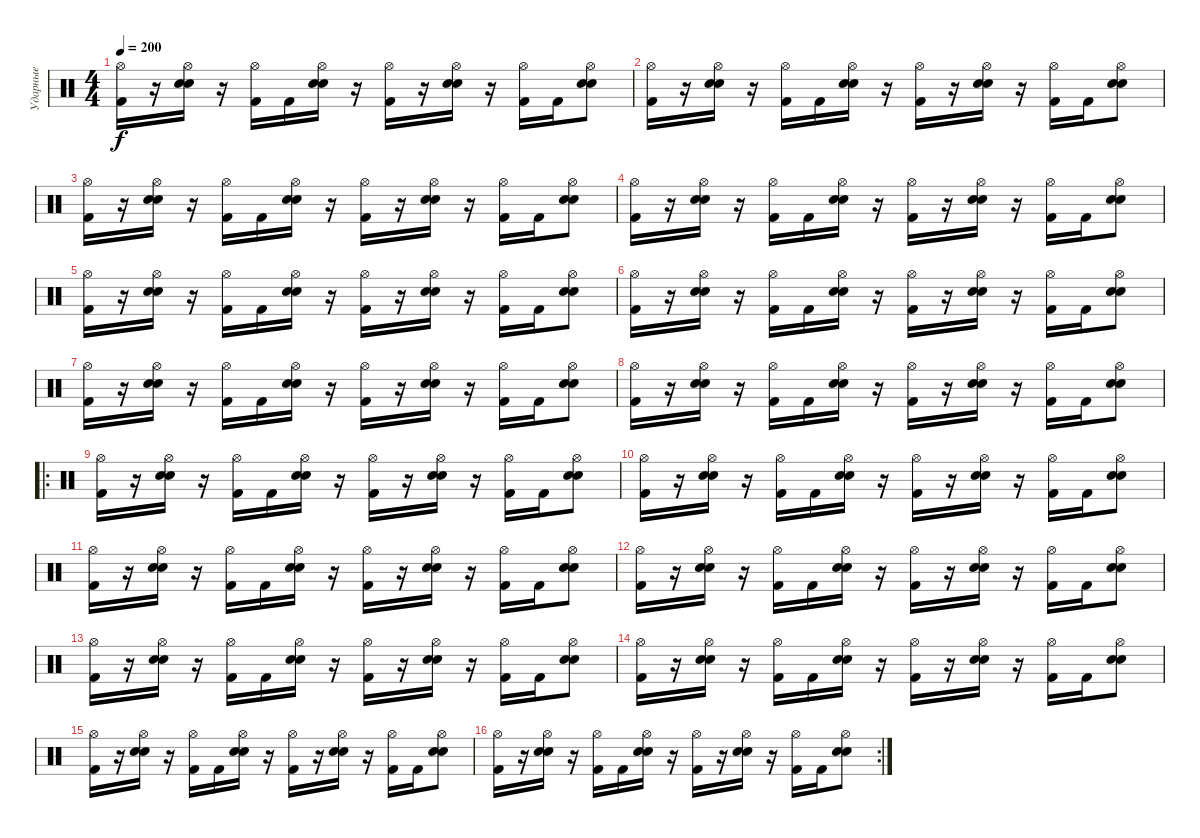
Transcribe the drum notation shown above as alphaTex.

\track ("Ударные" "Ударные") {instrument percussion}
\staff {score}
\articulation defaults
\ts (4 4)
\tempo 200
\clef neutral
\ks c
("Hi-Hat (open)" "Kick (hit) 2").16{dy f} r.16 ("Hi-Hat (open)" "Electric Snare (hit)" "Snare (hit) 2").16 r.16 ("Hi-Hat (open)" "Kick (hit) 2").16 "Kick (hit) 2".16 ("Hi-Hat (open)" "Electric Snare (hit)" "Snare (hit) 2").16 r.16 ("Hi-Hat (open)" "Kick (hit) 2").16 r.16 ("Hi-Hat (open)" "Electric Snare (hit)" "Snare (hit) 2").16 r.16 ("Hi-Hat (open)" "Kick (hit) 2").16 "Kick (hit) 2".16 ("Hi-Hat (open)" "Electric Snare (hit)" "Snare (hit) 2").8 |
("Hi-Hat (open)" "Kick (hit) 2").16 r.16 ("Hi-Hat (open)" "Electric Snare (hit)" "Snare (hit) 2").16 r.16 ("Hi-Hat (open)" "Kick (hit) 2").16 "Kick (hit) 2".16 ("Hi-Hat (open)" "Electric Snare (hit)" "Snare (hit) 2").16 r.16 ("Hi-Hat (open)" "Kick (hit) 2").16 r.16 ("Hi-Hat (open)" "Electric Snare (hit)" "Snare (hit) 2").16 r.16 ("Hi-Hat (open)" "Kick (hit) 2").16 "Kick (hit) 2".16 ("Hi-Hat (open)" "Electric Snare (hit)" "Snare (hit) 2").8 |
("Hi-Hat (open)" "Kick (hit) 2").16 r.16 ("Hi-Hat (open)" "Electric Snare (hit)" "Snare (hit) 2").16 r.16 ("Hi-Hat (open)" "Kick (hit) 2").16 "Kick (hit) 2".16 ("Hi-Hat (open)" "Electric Snare (hit)" "Snare (hit) 2").16 r.16 ("Hi-Hat (open)" "Kick (hit) 2").16 r.16 ("Hi-Hat (open)" "Electric Snare (hit)" "Snare (hit) 2").16 r.16 ("Hi-Hat (open)" "Kick (hit) 2").16 "Kick (hit) 2".16 ("Hi-Hat (open)" "Electric Snare (hit)" "Snare (hit) 2").8 |
("Hi-Hat (open)" "Kick (hit) 2").16 r.16 ("Hi-Hat (open)" "Electric Snare (hit)" "Snare (hit) 2").16 r.16 ("Hi-Hat (open)" "Kick (hit) 2").16 "Kick (hit) 2".16 ("Hi-Hat (open)" "Electric Snare (hit)" "Snare (hit) 2").16 r.16 ("Hi-Hat (open)" "Kick (hit) 2").16 r.16 ("Hi-Hat (open)" "Electric Snare (hit)" "Snare (hit) 2").16 r.16 ("Hi-Hat (open)" "Kick (hit) 2").16 "Kick (hit) 2".16 ("Hi-Hat (open)" "Electric Snare (hit)" "Snare (hit) 2").8 |
("Hi-Hat (open)" "Kick (hit) 2").16 r.16 ("Hi-Hat (open)" "Electric Snare (hit)" "Snare (hit) 2").16 r.16 ("Hi-Hat (open)" "Kick (hit) 2").16 "Kick (hit) 2".16 ("Hi-Hat (open)" "Electric Snare (hit)" "Snare (hit) 2").16 r.16 ("Hi-Hat (open)" "Kick (hit) 2").16 r.16 ("Hi-Hat (open)" "Electric Snare (hit)" "Snare (hit) 2").16 r.16 ("Hi-Hat (open)" "Kick (hit) 2").16 "Kick (hit) 2".16 ("Hi-Hat (open)" "Electric Snare (hit)" "Snare (hit) 2").8 |
("Hi-Hat (open)" "Kick (hit) 2").16 r.16 ("Hi-Hat (open)" "Electric Snare (hit)" "Snare (hit) 2").16 r.16 ("Hi-Hat (open)" "Kick (hit) 2").16 "Kick (hit) 2".16 ("Hi-Hat (open)" "Electric Snare (hit)" "Snare (hit) 2").16 r.16 ("Hi-Hat (open)" "Kick (hit) 2").16 r.16 ("Hi-Hat (open)" "Electric Snare (hit)" "Snare (hit) 2").16 r.16 ("Hi-Hat (open)" "Kick (hit) 2").16 "Kick (hit) 2".16 ("Hi-Hat (open)" "Electric Snare (hit)" "Snare (hit) 2").8 |
("Hi-Hat (open)" "Kick (hit) 2").16 r.16 ("Hi-Hat (open)" "Electric Snare (hit)" "Snare (hit) 2").16 r.16 ("Hi-Hat (open)" "Kick (hit) 2").16 "Kick (hit) 2".16 ("Hi-Hat (open)" "Electric Snare (hit)" "Snare (hit) 2").16 r.16 ("Hi-Hat (open)" "Kick (hit) 2").16 r.16 ("Hi-Hat (open)" "Electric Snare (hit)" "Snare (hit) 2").16 r.16 ("Hi-Hat (open)" "Kick (hit) 2").16 "Kick (hit) 2".16 ("Hi-Hat (open)" "Electric Snare (hit)" "Snare (hit) 2").8 |
("Hi-Hat (open)" "Kick (hit) 2").16 r.16 ("Hi-Hat (open)" "Electric Snare (hit)" "Snare (hit) 2").16 r.16 ("Hi-Hat (open)" "Kick (hit) 2").16 "Kick (hit) 2".16 ("Hi-Hat (open)" "Electric Snare (hit)" "Snare (hit) 2").16 r.16 ("Hi-Hat (open)" "Kick (hit) 2").16 r.16 ("Hi-Hat (open)" "Electric Snare (hit)" "Snare (hit) 2").16 r.16 ("Hi-Hat (open)" "Kick (hit) 2").16 "Kick (hit) 2".16 ("Hi-Hat (open)" "Electric Snare (hit)" "Snare (hit) 2").8 |
\ro
("Hi-Hat (open)" "Kick (hit) 2").16 r.16 ("Hi-Hat (open)" "Electric Snare (hit)" "Snare (hit) 2").16 r.16 ("Hi-Hat (open)" "Kick (hit) 2").16 "Kick (hit) 2".16 ("Hi-Hat (open)" "Electric Snare (hit)" "Snare (hit) 2").16 r.16 ("Hi-Hat (open)" "Kick (hit) 2").16 r.16 ("Hi-Hat (open)" "Electric Snare (hit)" "Snare (hit) 2").16 r.16 ("Hi-Hat (open)" "Kick (hit) 2").16 "Kick (hit) 2".16 ("Hi-Hat (open)" "Electric Snare (hit)" "Snare (hit) 2").8 |
("Hi-Hat (open)" "Kick (hit) 2").16 r.16 ("Hi-Hat (open)" "Electric Snare (hit)" "Snare (hit) 2").16 r.16 ("Hi-Hat (open)" "Kick (hit) 2").16 "Kick (hit) 2".16 ("Hi-Hat (open)" "Electric Snare (hit)" "Snare (hit) 2").16 r.16 ("Hi-Hat (open)" "Kick (hit) 2").16 r.16 ("Hi-Hat (open)" "Electric Snare (hit)" "Snare (hit) 2").16 r.16 ("Hi-Hat (open)" "Kick (hit) 2").16 "Kick (hit) 2".16 ("Hi-Hat (open)" "Electric Snare (hit)" "Snare (hit) 2").8 |
("Hi-Hat (open)" "Kick (hit) 2").16 r.16 ("Hi-Hat (open)" "Electric Snare (hit)" "Snare (hit) 2").16 r.16 ("Hi-Hat (open)" "Kick (hit) 2").16 "Kick (hit) 2".16 ("Hi-Hat (open)" "Electric Snare (hit)" "Snare (hit) 2").16 r.16 ("Hi-Hat (open)" "Kick (hit) 2").16 r.16 ("Hi-Hat (open)" "Electric Snare (hit)" "Snare (hit) 2").16 r.16 ("Hi-Hat (open)" "Kick (hit) 2").16 "Kick (hit) 2".16 ("Hi-Hat (open)" "Electric Snare (hit)" "Snare (hit) 2").8 |
("Hi-Hat (open)" "Kick (hit) 2").16 r.16 ("Hi-Hat (open)" "Electric Snare (hit)" "Snare (hit) 2").16 r.16 ("Hi-Hat (open)" "Kick (hit) 2").16 "Kick (hit) 2".16 ("Hi-Hat (open)" "Electric Snare (hit)" "Snare (hit) 2").16 r.16 ("Hi-Hat (open)" "Kick (hit) 2").16 r.16 ("Hi-Hat (open)" "Electric Snare (hit)" "Snare (hit) 2").16 r.16 ("Hi-Hat (open)" "Kick (hit) 2").16 "Kick (hit) 2".16 ("Hi-Hat (open)" "Electric Snare (hit)" "Snare (hit) 2").8 |
("Hi-Hat (open)" "Kick (hit) 2").16 r.16 ("Hi-Hat (open)" "Electric Snare (hit)" "Snare (hit) 2").16 r.16 ("Hi-Hat (open)" "Kick (hit) 2").16 "Kick (hit) 2".16 ("Hi-Hat (open)" "Electric Snare (hit)" "Snare (hit) 2").16 r.16 ("Hi-Hat (open)" "Kick (hit) 2").16 r.16 ("Hi-Hat (open)" "Electric Snare (hit)" "Snare (hit) 2").16 r.16 ("Hi-Hat (open)" "Kick (hit) 2").16 "Kick (hit) 2".16 ("Hi-Hat (open)" "Electric Snare (hit)" "Snare (hit) 2").8 |
("Hi-Hat (open)" "Kick (hit) 2").16 r.16 ("Hi-Hat (open)" "Electric Snare (hit)" "Snare (hit) 2").16 r.16 ("Hi-Hat (open)" "Kick (hit) 2").16 "Kick (hit) 2".16 ("Hi-Hat (open)" "Electric Snare (hit)" "Snare (hit) 2").16 r.16 ("Hi-Hat (open)" "Kick (hit) 2").16 r.16 ("Hi-Hat (open)" "Electric Snare (hit)" "Snare (hit) 2").16 r.16 ("Hi-Hat (open)" "Kick (hit) 2").16 "Kick (hit) 2".16 ("Hi-Hat (open)" "Electric Snare (hit)" "Snare (hit) 2").8 |
("Hi-Hat (open)" "Kick (hit) 2").16 r.16 ("Hi-Hat (open)" "Electric Snare (hit)" "Snare (hit) 2").16 r.16 ("Hi-Hat (open)" "Kick (hit) 2").16 "Kick (hit) 2".16 ("Hi-Hat (open)" "Electric Snare (hit)" "Snare (hit) 2").16 r.16 ("Hi-Hat (open)" "Kick (hit) 2").16 r.16 ("Hi-Hat (open)" "Electric Snare (hit)" "Snare (hit) 2").16 r.16 ("Hi-Hat (open)" "Kick (hit) 2").16 "Kick (hit) 2".16 ("Hi-Hat (open)" "Electric Snare (hit)" "Snare (hit) 2").8 |
\rc 2
("Hi-Hat (open)" "Kick (hit) 2").16 r.16 ("Hi-Hat (open)" "Electric Snare (hit)" "Snare (hit) 2").16 r.16 ("Hi-Hat (open)" "Kick (hit) 2").16 "Kick (hit) 2".16 ("Hi-Hat (open)" "Electric Snare (hit)" "Snare (hit) 2").16 r.16 ("Hi-Hat (open)" "Kick (hit) 2").16 r.16 ("Hi-Hat (open)" "Electric Snare (hit)" "Snare (hit) 2").16 r.16 ("Hi-Hat (open)" "Kick (hit) 2").16 "Kick (hit) 2".16 ("Hi-Hat (open)" "Electric Snare (hit)" "Snare (hit) 2").8
